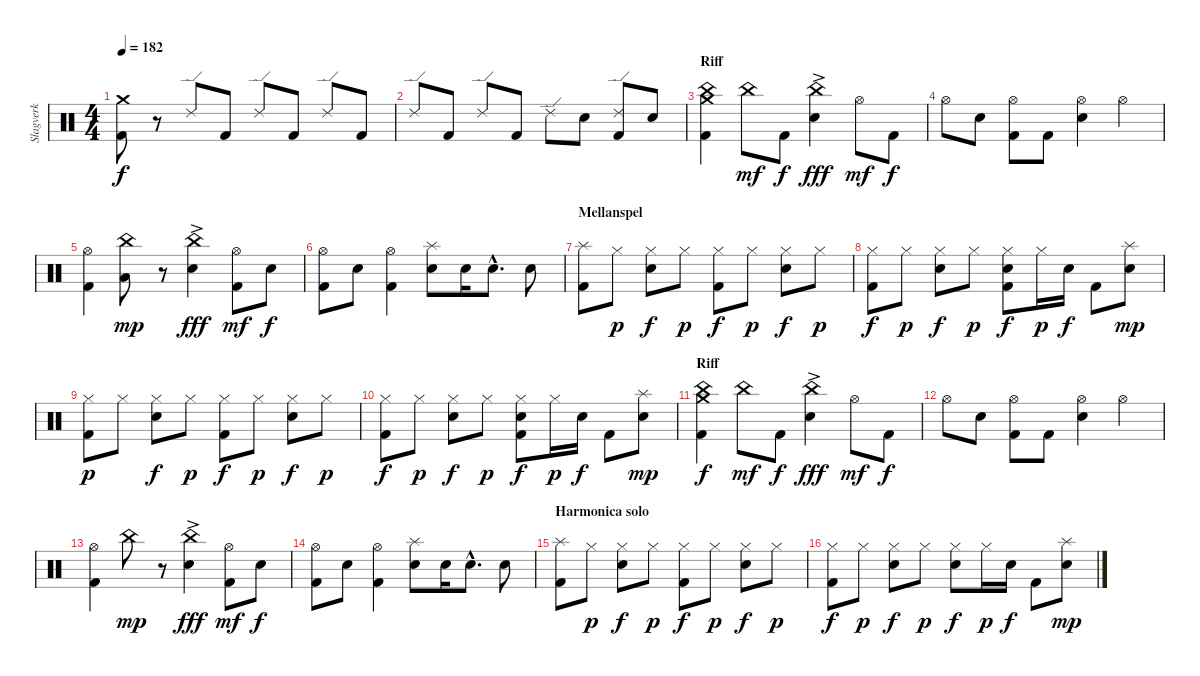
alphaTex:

\track ("Slagverk" "Slagverk") {instrument percussion}
\staff {score}
\articulation defaults
\ts (4 4)
\tempo 182
\clef neutral
\ks c
("Crash medium (hit)" "Kick (hit) 2").8{dy f} r.8 "Ride (edge) 2".8 "Kick (hit) 2".8 "Ride (edge) 2".8 "Kick (hit) 2".8 "Ride (edge) 2".8 "Kick (hit) 2".8 |
"Ride (edge) 2".8 "Kick (hit) 2".8 "Ride (edge) 2".8 "Kick (hit) 2".8 "Ride (edge) 2".8 "Electric Snare (hit)".8 ("Ride (edge) 2" "Kick (hit) 2").8 "Electric Snare (hit)".8 |
\section ("" "Riff")
("China (hit)" "Crash medium (hit)" "Kick (hit) 2").4 "China (hit)".8{dy mf} "Kick (hit) 2".8{dy f} ("China (hit)" "Electric Snare (hit)"{ac}).4{dy fff} "Hi-Hat (open)".8{dy mf} "Kick (hit) 2".8{dy f} |
"Hi-Hat (open)".8 "Electric Snare (hit)".8 ("Hi-Hat (open)" "Kick (hit) 2").8 "Kick (hit) 2".8 ("Hi-Hat (open)" "Electric Snare (hit)").4 "Hi-Hat (open)".4 |
("Hi-Hat (open)" "Kick (hit) 2").4 ("China (hit)" "Low Floor Tom (hit)").8{dy mp} r.8 ("China (hit)" "Electric Snare (hit)"{ac}).4{dy fff} ("Hi-Hat (open)" "Kick (hit) 2").8{dy mf} "Electric Snare (hit)".8{dy f} |
("Hi-Hat (open)" "Kick (hit) 2").8 "Electric Snare (hit)".8 ("Hi-Hat (open)" "Kick (hit) 2").4 ("Splash (hit)" "Electric Snare (hit)").8 "Electric Snare (hit)".16 "Electric Snare (hit)"{hac}.8{d} "Electric Snare (hit)".8 |
\section ("" "Mellanspel")
("Splash (hit)" "Kick (hit) 2").8 "Hi-Hat (closed)".8{dy p} ("Hi-Hat (closed)" "Electric Snare (hit)").8{dy f} "Hi-Hat (closed)".8{dy p} ("Hi-Hat (closed)" "Kick (hit) 2").8{dy f} "Hi-Hat (closed)".8{dy p} ("Hi-Hat (closed)" "Electric Snare (hit)").8{dy f} "Hi-Hat (closed)".8{dy p} |
("Hi-Hat (closed)" "Kick (hit) 2").8{dy f} "Hi-Hat (closed)".8{dy p} ("Hi-Hat (closed)" "Electric Snare (hit)").8{dy f} "Hi-Hat (closed)".8{dy p} ("Hi-Hat (closed)" "Electric Snare (hit)" "Kick (hit) 2").8{dy f} "Hi-Hat (closed)".16{dy p} "Electric Snare (hit)".16{dy f} "Kick (hit) 2".8 ("Splash (hit)" "Electric Snare (hit)").8{dy mp} |
("Hi-Hat (closed)" "Kick (hit) 2").8{dy p} "Hi-Hat (closed)".8 ("Hi-Hat (closed)" "Electric Snare (hit)").8{dy f} "Hi-Hat (closed)".8{dy p} ("Hi-Hat (closed)" "Kick (hit) 2").8{dy f} "Hi-Hat (closed)".8{dy p} ("Hi-Hat (closed)" "Electric Snare (hit)").8{dy f} "Hi-Hat (closed)".8{dy p} |
("Hi-Hat (closed)" "Kick (hit) 2").8{dy f} "Hi-Hat (closed)".8{dy p} ("Hi-Hat (closed)" "Electric Snare (hit)").8{dy f} "Hi-Hat (closed)".8{dy p} ("Hi-Hat (closed)" "Electric Snare (hit)" "Kick (hit) 2").8{dy f} "Hi-Hat (closed)".16{dy p} "Electric Snare (hit)".16{dy f} "Kick (hit) 2".8 ("Splash (hit)" "Electric Snare (hit)").8{dy mp} |
\section ("" "Riff")
("China (hit)" "Crash medium (hit)" "Kick (hit) 2").4{dy f} "China (hit)".8{dy mf} "Kick (hit) 2".8{dy f} ("China (hit)" "Electric Snare (hit)"{ac}).4{dy fff} "Hi-Hat (open)".8{dy mf} "Kick (hit) 2".8{dy f} |
"Hi-Hat (open)".8 "Electric Snare (hit)".8 ("Hi-Hat (open)" "Kick (hit) 2").8 "Kick (hit) 2".8 ("Hi-Hat (open)" "Electric Snare (hit)").4 "Hi-Hat (open)".4 |
("Hi-Hat (open)" "Kick (hit) 2").4 "China (hit)".8{dy mp} r.8 ("China (hit)" "Electric Snare (hit)"{ac}).4{dy fff} ("Hi-Hat (open)" "Kick (hit) 2").8{dy mf} "Electric Snare (hit)".8{dy f} |
("Hi-Hat (open)" "Kick (hit) 2").8 "Electric Snare (hit)".8 ("Hi-Hat (open)" "Kick (hit) 2").4 ("Splash (hit)" "Electric Snare (hit)").8 "Electric Snare (hit)".16 "Electric Snare (hit)"{hac}.8{d} "Electric Snare (hit)".8 |
\section ("" "Harmonica solo")
("Splash (hit)" "Kick (hit) 2").8 "Hi-Hat (closed)".8{dy p} ("Hi-Hat (closed)" "Electric Snare (hit)").8{dy f} "Hi-Hat (closed)".8{dy p} ("Hi-Hat (closed)" "Kick (hit) 2").8{dy f} "Hi-Hat (closed)".8{dy p} ("Hi-Hat (closed)" "Electric Snare (hit)").8{dy f} "Hi-Hat (closed)".8{dy p} |
("Hi-Hat (closed)" "Kick (hit) 2").8{dy f} "Hi-Hat (closed)".8{dy p} ("Hi-Hat (closed)" "Electric Snare (hit)").8{dy f} "Hi-Hat (closed)".8{dy p} ("Hi-Hat (closed)" "Electric Snare (hit)").8{dy f} "Hi-Hat (closed)".16{dy p} "Electric Snare (hit)".16{dy f} "Kick (hit) 2".8 ("Splash (hit)" "Electric Snare (hit)").8{dy mp}
